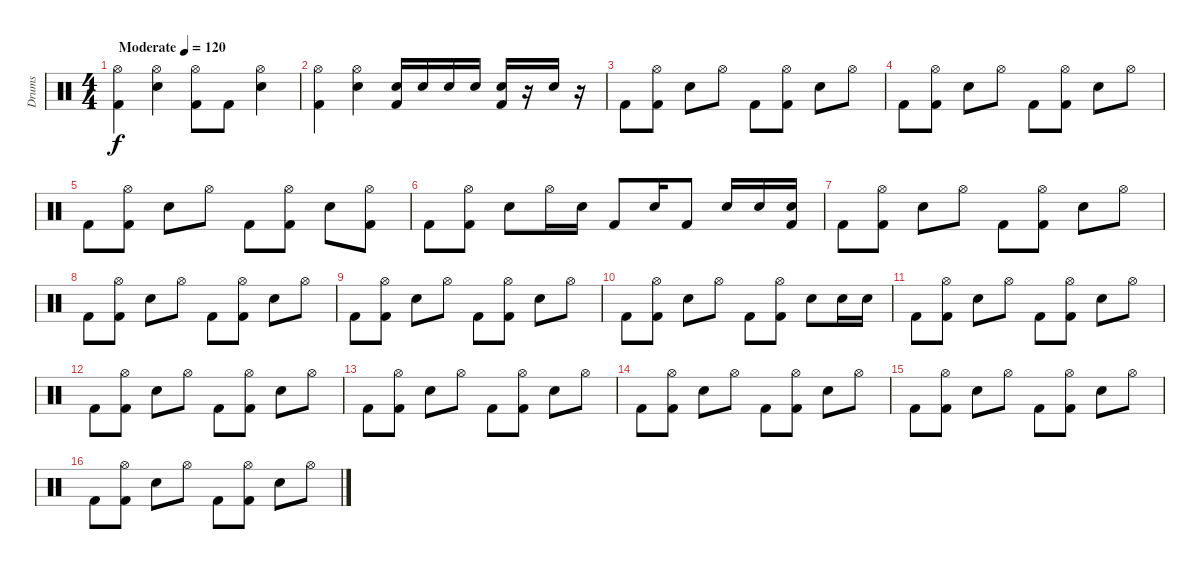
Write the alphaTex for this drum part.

\track ("Drums" "Drums") {instrument percussion}
\staff {score}
\articulation defaults
\ts (4 4)
\tempo (120 "Moderate")
\clef neutral
\ks c
("Hi-Hat (open)" "Kick (hit) 2").4{dy f} ("Hi-Hat (open)" "Electric Snare (hit)").4 ("Hi-Hat (open)" "Kick (hit) 2").8 "Kick (hit) 2".8 ("Hi-Hat (open)" "Electric Snare (hit)").4 |
("Hi-Hat (open)" "Kick (hit) 2").4 ("Hi-Hat (open)" "Electric Snare (hit)").4 ("Kick (hit) 2" "Electric Snare (hit)").16 "Electric Snare (hit)".16 "Electric Snare (hit)".16 "Electric Snare (hit)".16 ("Kick (hit) 2" "Electric Snare (hit)").16 r.16 "Electric Snare (hit)".16 r.16 |
"Kick (hit) 2".8 ("Hi-Hat (open)" "Kick (hit) 2").8 "Electric Snare (hit)".8 "Hi-Hat (open)".8 "Kick (hit) 2".8 ("Hi-Hat (open)" "Kick (hit) 2").8 "Electric Snare (hit)".8 "Hi-Hat (open)".8 |
"Kick (hit) 2".8 ("Hi-Hat (open)" "Kick (hit) 2").8 "Electric Snare (hit)".8 "Hi-Hat (open)".8 "Kick (hit) 2".8 ("Hi-Hat (open)" "Kick (hit) 2").8 "Electric Snare (hit)".8 "Hi-Hat (open)".8 |
"Kick (hit) 2".8 ("Hi-Hat (open)" "Kick (hit) 2").8 "Electric Snare (hit)".8 "Hi-Hat (open)".8 "Kick (hit) 2".8 ("Hi-Hat (open)" "Kick (hit) 2").8 "Electric Snare (hit)".8 ("Hi-Hat (open)" "Kick (hit) 2").8 |
"Kick (hit) 2".8 ("Hi-Hat (open)" "Kick (hit) 2").8 "Electric Snare (hit)".8 "Hi-Hat (open)".16 "Electric Snare (hit)".16 "Kick (hit) 2".8 "Electric Snare (hit)".16 "Kick (hit) 2".8 "Electric Snare (hit)".16 "Electric Snare (hit)".16 ("Electric Snare (hit)" "Kick (hit) 2").16 |
"Kick (hit) 2".8 ("Hi-Hat (open)" "Kick (hit) 2").8 "Electric Snare (hit)".8 "Hi-Hat (open)".8 "Kick (hit) 2".8 ("Hi-Hat (open)" "Kick (hit) 2").8 "Electric Snare (hit)".8 "Hi-Hat (open)".8 |
"Kick (hit) 2".8 ("Hi-Hat (open)" "Kick (hit) 2").8 "Electric Snare (hit)".8 "Hi-Hat (open)".8 "Kick (hit) 2".8 ("Hi-Hat (open)" "Kick (hit) 2").8 "Electric Snare (hit)".8 "Hi-Hat (open)".8 |
"Kick (hit) 2".8 ("Hi-Hat (open)" "Kick (hit) 2").8 "Electric Snare (hit)".8 "Hi-Hat (open)".8 "Kick (hit) 2".8 ("Hi-Hat (open)" "Kick (hit) 2").8 "Electric Snare (hit)".8 "Hi-Hat (open)".8 |
"Kick (hit) 2".8 ("Hi-Hat (open)" "Kick (hit) 2").8 "Electric Snare (hit)".8 "Hi-Hat (open)".8 "Kick (hit) 2".8 ("Hi-Hat (open)" "Kick (hit) 2").8 "Electric Snare (hit)".8 "Electric Snare (hit)".16 "Electric Snare (hit)".16 |
"Kick (hit) 2".8 ("Hi-Hat (open)" "Kick (hit) 2").8 "Electric Snare (hit)".8 "Hi-Hat (open)".8 "Kick (hit) 2".8 ("Hi-Hat (open)" "Kick (hit) 2").8 "Electric Snare (hit)".8 "Hi-Hat (open)".8 |
"Kick (hit) 2".8 ("Hi-Hat (open)" "Kick (hit) 2").8 "Electric Snare (hit)".8 "Hi-Hat (open)".8 "Kick (hit) 2".8 ("Hi-Hat (open)" "Kick (hit) 2").8 "Electric Snare (hit)".8 "Hi-Hat (open)".8 |
"Kick (hit) 2".8 ("Hi-Hat (open)" "Kick (hit) 2").8 "Electric Snare (hit)".8 "Hi-Hat (open)".8 "Kick (hit) 2".8 ("Hi-Hat (open)" "Kick (hit) 2").8 "Electric Snare (hit)".8 "Hi-Hat (open)".8 |
"Kick (hit) 2".8 ("Hi-Hat (open)" "Kick (hit) 2").8 "Electric Snare (hit)".8 "Hi-Hat (open)".8 "Kick (hit) 2".8 ("Hi-Hat (open)" "Kick (hit) 2").8 "Electric Snare (hit)".8 "Hi-Hat (open)".8 |
"Kick (hit) 2".8 ("Hi-Hat (open)" "Kick (hit) 2").8 "Electric Snare (hit)".8 "Hi-Hat (open)".8 "Kick (hit) 2".8 ("Hi-Hat (open)" "Kick (hit) 2").8 "Electric Snare (hit)".8 "Hi-Hat (open)".8 |
"Kick (hit) 2".8 ("Hi-Hat (open)" "Kick (hit) 2").8 "Electric Snare (hit)".8 "Hi-Hat (open)".8 "Kick (hit) 2".8 ("Hi-Hat (open)" "Kick (hit) 2").8 "Electric Snare (hit)".8 "Hi-Hat (open)".8
